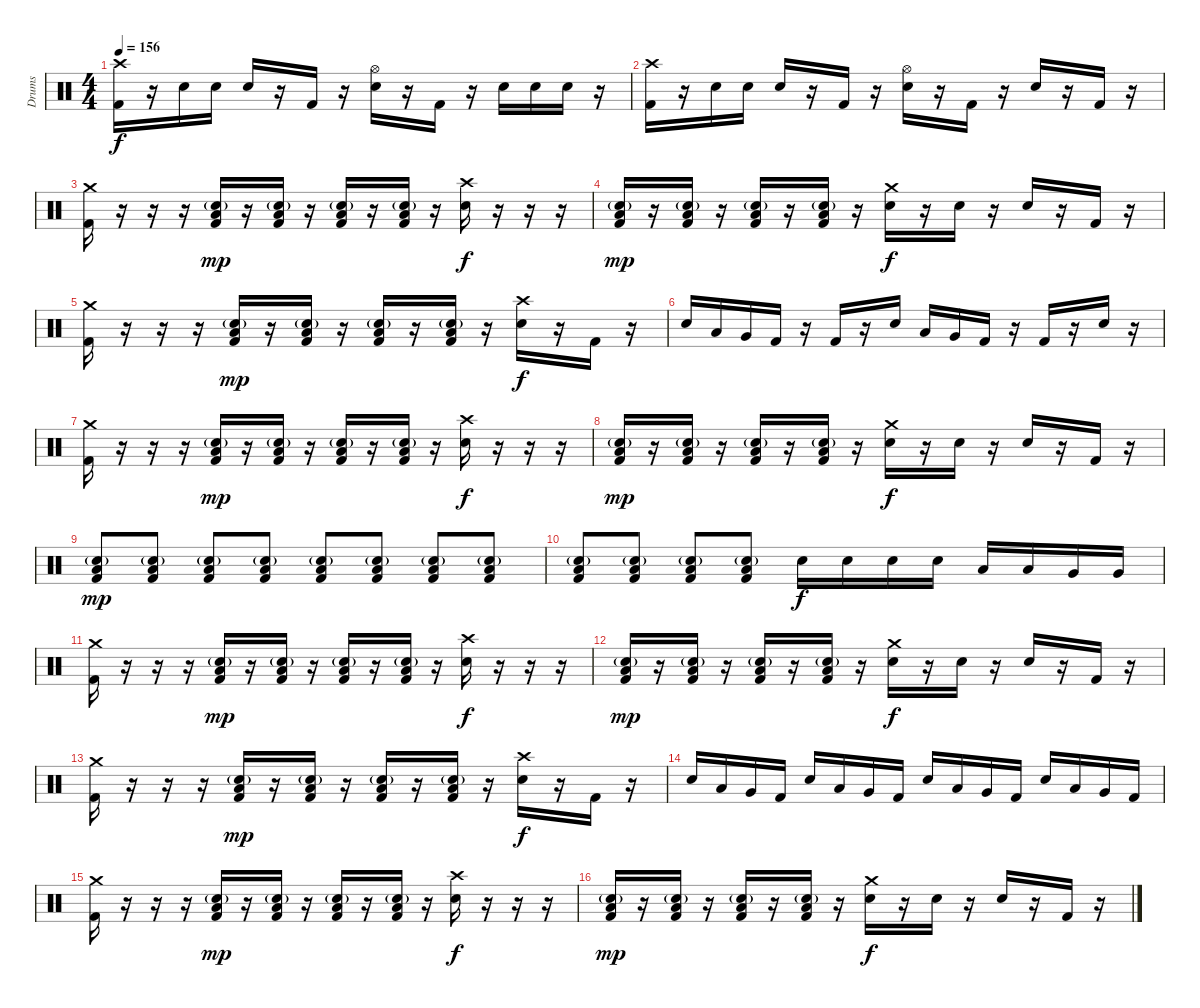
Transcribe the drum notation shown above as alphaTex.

\track ("Drums" "Drums") {instrument percussion}
\staff {score}
\articulation defaults
\ts (4 4)
\tempo 156
\clef neutral
\ks c
("Crash high (hit)" "Kick (hit) 2").16{dy f} r.16 "Electric Snare (hit)".16 "Electric Snare (hit)".16 "Electric Snare (hit)".16 r.16 "Kick (hit) 2".16 r.16 ("Hi-Hat (open)" "Electric Snare (hit)").16 r.16 "Kick (hit) 2".16 r.16 "Electric Snare (hit)".16 "Electric Snare (hit)".16 "Electric Snare (hit)".16 r.16 |
("Crash high (hit)" "Kick (hit) 2").16 r.16 "Electric Snare (hit)".16 "Electric Snare (hit)".16 "Electric Snare (hit)".16 r.16 "Kick (hit) 2".16 r.16 ("Hi-Hat (open)" "Electric Snare (hit)").16 r.16 "Kick (hit) 2".16 r.16 "Electric Snare (hit)".16 r.16 "Kick (hit) 2".16 r.16 |
("Crash medium (hit)" "Kick (hit) 2").16 r.16 r.16 r.16 ("Electric Snare (hit)"{g} "Low Floor Tom (hit)" "Kick (hit) 2").16{dy mp} r.16 ("Electric Snare (hit)"{g} "Low Floor Tom (hit)" "Kick (hit) 2").16 r.16 ("Electric Snare (hit)"{g} "Low Floor Tom (hit)" "Kick (hit) 2").16 r.16 ("Electric Snare (hit)"{g} "Low Floor Tom (hit)" "Kick (hit) 2").16 r.16 ("Crash high (hit)" "Electric Snare (hit)").16{dy f} r.16 r.16 r.16 |
("Electric Snare (hit)"{g} "Low Floor Tom (hit)" "Kick (hit) 2").16{dy mp} r.16 ("Electric Snare (hit)"{g} "Low Floor Tom (hit)" "Kick (hit) 2").16 r.16 ("Electric Snare (hit)"{g} "Low Floor Tom (hit)" "Kick (hit) 2").16 r.16 ("Electric Snare (hit)"{g} "Low Floor Tom (hit)" "Kick (hit) 2").16 r.16 ("Crash medium (hit)" "Electric Snare (hit)").16{dy f} r.16 "Electric Snare (hit)".16 r.16 "Electric Snare (hit)".16 r.16 "Kick (hit) 2".16 r.16 |
("Crash medium (hit)" "Kick (hit) 2").16 r.16 r.16 r.16 ("Electric Snare (hit)"{g} "Low Floor Tom (hit)" "Kick (hit) 2").16{dy mp} r.16 ("Electric Snare (hit)"{g} "Low Floor Tom (hit)" "Kick (hit) 2").16 r.16 ("Electric Snare (hit)"{g} "Low Floor Tom (hit)" "Kick (hit) 2").16 r.16 ("Electric Snare (hit)"{g} "Low Floor Tom (hit)" "Kick (hit) 2").16 r.16 ("Crash high (hit)" "Electric Snare (hit)").16{dy f} r.16 "Kick (hit) 2".16 r.16 |
"Electric Snare (hit)".16 "Low Tom (hit)".16 "Very Low Tom (hit)".16 "Kick (hit) 2".16 r.16 "Kick (hit) 2".16 r.16 "Electric Snare (hit)".16 "Low Tom (hit)".16 "Very Low Tom (hit)".16 "Kick (hit) 2".16 r.16 "Kick (hit) 2".16 r.16 "Electric Snare (hit)".16 r.16 |
("Crash medium (hit)" "Kick (hit) 2").16 r.16 r.16 r.16 ("Electric Snare (hit)"{g} "Low Floor Tom (hit)" "Kick (hit) 2").16{dy mp} r.16 ("Electric Snare (hit)"{g} "Low Floor Tom (hit)" "Kick (hit) 2").16 r.16 ("Electric Snare (hit)"{g} "Low Floor Tom (hit)" "Kick (hit) 2").16 r.16 ("Electric Snare (hit)"{g} "Low Floor Tom (hit)" "Kick (hit) 2").16 r.16 ("Crash high (hit)" "Electric Snare (hit)").16{dy f} r.16 r.16 r.16 |
("Electric Snare (hit)"{g} "Low Floor Tom (hit)" "Kick (hit) 2").16{dy mp} r.16 ("Electric Snare (hit)"{g} "Low Floor Tom (hit)" "Kick (hit) 2").16 r.16 ("Electric Snare (hit)"{g} "Low Floor Tom (hit)" "Kick (hit) 2").16 r.16 ("Electric Snare (hit)"{g} "Low Floor Tom (hit)" "Kick (hit) 2").16 r.16 ("Crash medium (hit)" "Electric Snare (hit)").16{dy f} r.16 "Electric Snare (hit)".16 r.16 "Electric Snare (hit)".16 r.16 "Kick (hit) 2".16 r.16 |
("Electric Snare (hit)"{g} "Low Floor Tom (hit)" "Kick (hit) 2").8{dy mp} ("Electric Snare (hit)"{g} "Low Floor Tom (hit)" "Kick (hit) 2").8 ("Electric Snare (hit)"{g} "Low Floor Tom (hit)" "Kick (hit) 2").8 ("Electric Snare (hit)"{g} "Low Floor Tom (hit)" "Kick (hit) 2").8 ("Electric Snare (hit)"{g} "Low Floor Tom (hit)" "Kick (hit) 2").8 ("Electric Snare (hit)"{g} "Low Floor Tom (hit)" "Kick (hit) 2").8 ("Electric Snare (hit)"{g} "Low Floor Tom (hit)" "Kick (hit) 2").8 ("Electric Snare (hit)"{g} "Low Floor Tom (hit)" "Kick (hit) 2").8 |
("Electric Snare (hit)"{g} "Low Floor Tom (hit)" "Kick (hit) 2").8 ("Electric Snare (hit)"{g} "Low Floor Tom (hit)" "Kick (hit) 2").8 ("Electric Snare (hit)"{g} "Low Floor Tom (hit)" "Kick (hit) 2").8 ("Electric Snare (hit)"{g} "Low Floor Tom (hit)" "Kick (hit) 2").8 "Electric Snare (hit)".16{dy f} "Electric Snare (hit)".16 "Electric Snare (hit)".16 "Electric Snare (hit)".16 "Low Tom (hit)".16 "Low Tom (hit)".16 "Very Low Tom (hit)".16 "Very Low Tom (hit)".16 |
("Crash medium (hit)" "Kick (hit) 2").16 r.16 r.16 r.16 ("Electric Snare (hit)"{g} "Low Floor Tom (hit)" "Kick (hit) 2").16{dy mp} r.16 ("Electric Snare (hit)"{g} "Low Floor Tom (hit)" "Kick (hit) 2").16 r.16 ("Electric Snare (hit)"{g} "Low Floor Tom (hit)" "Kick (hit) 2").16 r.16 ("Electric Snare (hit)"{g} "Low Floor Tom (hit)" "Kick (hit) 2").16 r.16 ("Crash high (hit)" "Electric Snare (hit)").16{dy f} r.16 r.16 r.16 |
("Electric Snare (hit)"{g} "Low Floor Tom (hit)" "Kick (hit) 2").16{dy mp} r.16 ("Electric Snare (hit)"{g} "Low Floor Tom (hit)" "Kick (hit) 2").16 r.16 ("Electric Snare (hit)"{g} "Low Floor Tom (hit)" "Kick (hit) 2").16 r.16 ("Electric Snare (hit)"{g} "Low Floor Tom (hit)" "Kick (hit) 2").16 r.16 ("Crash medium (hit)" "Electric Snare (hit)").16{dy f} r.16 "Electric Snare (hit)".16 r.16 "Electric Snare (hit)".16 r.16 "Kick (hit) 2".16 r.16 |
("Crash medium (hit)" "Kick (hit) 2").16 r.16 r.16 r.16 ("Electric Snare (hit)"{g} "Low Floor Tom (hit)" "Kick (hit) 2").16{dy mp} r.16 ("Electric Snare (hit)"{g} "Low Floor Tom (hit)" "Kick (hit) 2").16 r.16 ("Electric Snare (hit)"{g} "Low Floor Tom (hit)" "Kick (hit) 2").16 r.16 ("Electric Snare (hit)"{g} "Low Floor Tom (hit)" "Kick (hit) 2").16 r.16 ("Crash high (hit)" "Electric Snare (hit)").16{dy f} r.16 "Kick (hit) 2".16 r.16 |
"Electric Snare (hit)".16 "Low Tom (hit)".16 "Very Low Tom (hit)".16 "Kick (hit) 2".16 "Electric Snare (hit)".16 "Low Tom (hit)".16 "Very Low Tom (hit)".16 "Kick (hit) 2".16 "Electric Snare (hit)".16 "Low Tom (hit)".16 "Very Low Tom (hit)".16 "Kick (hit) 2".16 "Electric Snare (hit)".16 "Low Tom (hit)".16 "Very Low Tom (hit)".16 "Kick (hit) 2".16 |
("Crash medium (hit)" "Kick (hit) 2").16 r.16 r.16 r.16 ("Electric Snare (hit)"{g} "Low Floor Tom (hit)" "Kick (hit) 2").16{dy mp} r.16 ("Electric Snare (hit)"{g} "Low Floor Tom (hit)" "Kick (hit) 2").16 r.16 ("Electric Snare (hit)"{g} "Low Floor Tom (hit)" "Kick (hit) 2").16 r.16 ("Electric Snare (hit)"{g} "Low Floor Tom (hit)" "Kick (hit) 2").16 r.16 ("Crash high (hit)" "Electric Snare (hit)").16{dy f} r.16 r.16 r.16 |
("Electric Snare (hit)"{g} "Low Floor Tom (hit)" "Kick (hit) 2").16{dy mp} r.16 ("Electric Snare (hit)"{g} "Low Floor Tom (hit)" "Kick (hit) 2").16 r.16 ("Electric Snare (hit)"{g} "Low Floor Tom (hit)" "Kick (hit) 2").16 r.16 ("Electric Snare (hit)"{g} "Low Floor Tom (hit)" "Kick (hit) 2").16 r.16 ("Crash medium (hit)" "Electric Snare (hit)").16{dy f} r.16 "Electric Snare (hit)".16 r.16 "Electric Snare (hit)".16 r.16 "Kick (hit) 2".16 r.16
